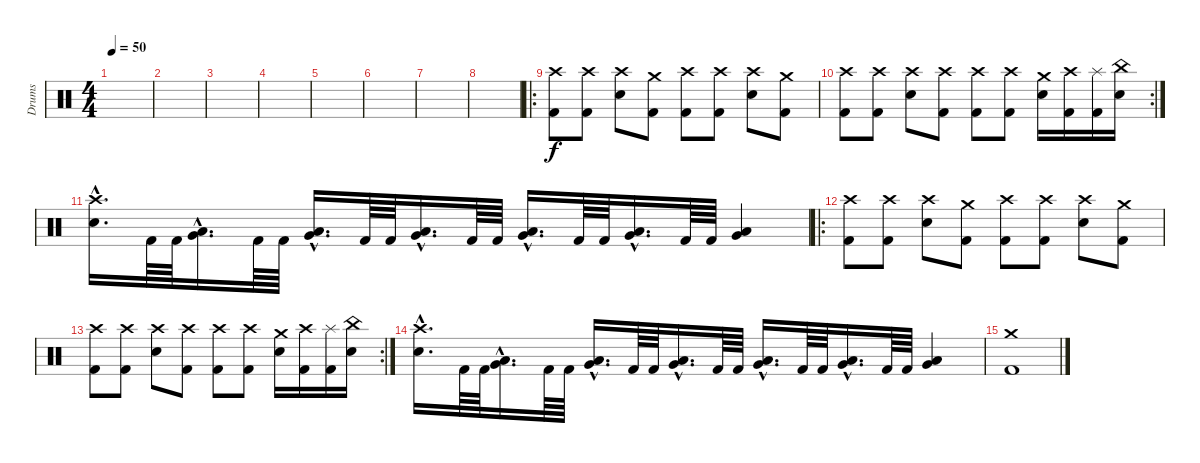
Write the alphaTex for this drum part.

\track ("Drums" "Drums") {instrument percussion}
\staff {score}
\articulation defaults
\ts (4 4)
\tempo 50
\clef neutral
\ks c
|
|
|
|
|
|
|
|
\ro
("Crash high (hit)" "Kick (hit) 2").8 ("Crash high (hit)" "Kick (hit) 2").8 ("Crash high (hit)" "Electric Snare (hit)").8 ("Crash medium (hit)" "Kick (hit) 2").8 ("Crash high (hit)" "Kick (hit) 2").8 ("Crash high (hit)" "Kick (hit) 2").8 ("Crash high (hit)" "Electric Snare (hit)").8 ("Crash medium (hit)" "Kick (hit) 2").8 |
\rc 2
("Crash high (hit)" "Kick (hit) 2").8 ("Crash high (hit)" "Kick (hit) 2").8 ("Crash high (hit)" "Electric Snare (hit)").8 ("Crash high (hit)" "Kick (hit) 2").8 ("Crash high (hit)" "Kick (hit) 2").8 ("Crash high (hit)" "Kick (hit) 2").8 ("Crash medium (hit)" "Electric Snare (hit)").16 ("Crash high (hit)" "Kick (hit) 2").16 ("Splash (hit)" "Kick (hit) 2").16 ("China (hit)" "Electric Snare (hit)").16 |
("Crash high (hit)"{hac} "Electric Snare (hit)"{hac}).16{d} "Kick (hit) 2".64 "Kick (hit) 2".64 ("Very Low Tom (hit)"{hac} "Low Tom (hit)"{hac}).16{d} "Kick (hit) 2".64 "Kick (hit) 2".64 ("Very Low Tom (hit)"{hac} "Low Tom (hit)"{hac}).16{d} "Kick (hit) 2".64 "Kick (hit) 2".64 ("Very Low Tom (hit)"{hac} "Low Tom (hit)"{hac}).16{d} "Kick (hit) 2".64 "Kick (hit) 2".64 ("Very Low Tom (hit)"{hac} "Low Tom (hit)"{hac}).16{d} "Kick (hit) 2".64 "Kick (hit) 2".64 ("Very Low Tom (hit)"{hac} "Low Tom (hit)"{hac}).16{d} "Kick (hit) 2".64 "Kick (hit) 2".64 ("Very Low Tom (hit)" "Low Tom (hit)").4 |
\ro
("Crash high (hit)" "Kick (hit) 2").8 ("Crash high (hit)" "Kick (hit) 2").8 ("Crash high (hit)" "Electric Snare (hit)").8 ("Crash medium (hit)" "Kick (hit) 2").8 ("Crash high (hit)" "Kick (hit) 2").8 ("Crash high (hit)" "Kick (hit) 2").8 ("Crash high (hit)" "Electric Snare (hit)").8 ("Crash medium (hit)" "Kick (hit) 2").8 |
\rc 2
("Crash high (hit)" "Kick (hit) 2").8 ("Crash high (hit)" "Kick (hit) 2").8 ("Crash high (hit)" "Electric Snare (hit)").8 ("Crash high (hit)" "Kick (hit) 2").8 ("Crash high (hit)" "Kick (hit) 2").8 ("Crash high (hit)" "Kick (hit) 2").8 ("Crash medium (hit)" "Electric Snare (hit)").16 ("Crash high (hit)" "Kick (hit) 2").16 ("Splash (hit)" "Kick (hit) 2").16 ("China (hit)" "Electric Snare (hit)").16 |
("Crash high (hit)"{hac} "Electric Snare (hit)"{hac}).16{d} "Kick (hit) 2".64 "Kick (hit) 2".64 ("Very Low Tom (hit)"{hac} "Low Tom (hit)"{hac}).16{d} "Kick (hit) 2".64 "Kick (hit) 2".64 ("Very Low Tom (hit)"{hac} "Low Tom (hit)"{hac}).16{d} "Kick (hit) 2".64 "Kick (hit) 2".64 ("Very Low Tom (hit)"{hac} "Low Tom (hit)"{hac}).16{d} "Kick (hit) 2".64 "Kick (hit) 2".64 ("Very Low Tom (hit)"{hac} "Low Tom (hit)"{hac}).16{d} "Kick (hit) 2".64 "Kick (hit) 2".64 ("Very Low Tom (hit)"{hac} "Low Tom (hit)"{hac}).16{d} "Kick (hit) 2".64 "Kick (hit) 2".64 ("Very Low Tom (hit)" "Low Tom (hit)").4 |
("Crash medium (hit)" "Kick (hit) 2").1
